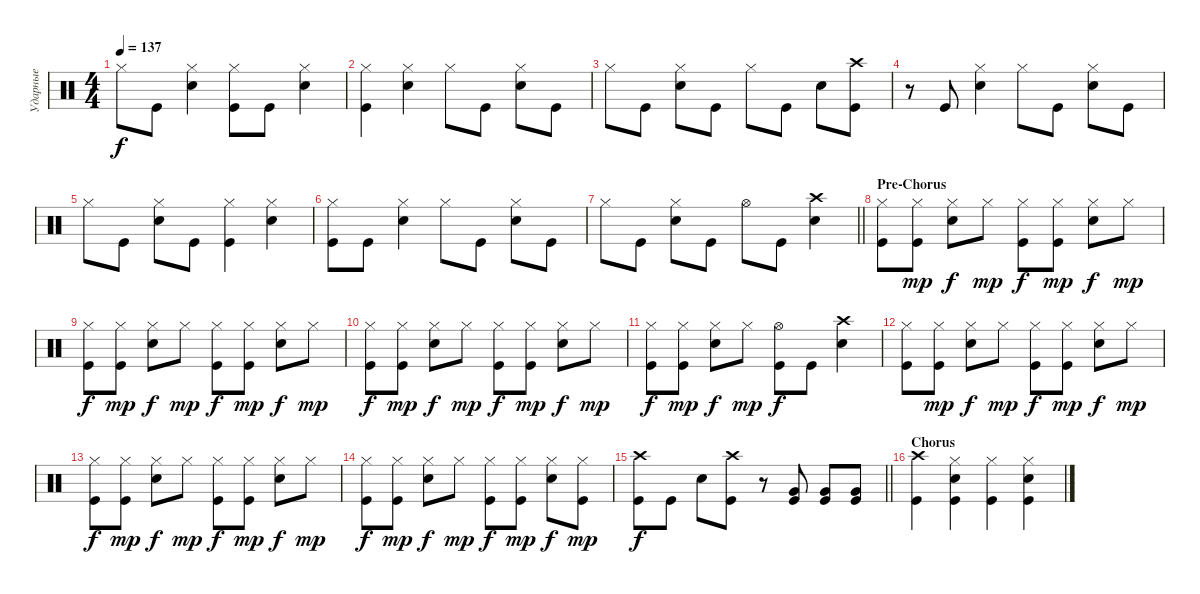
\track ("Ударные" "Ударные") {instrument percussion}
\staff {score}
\articulation defaults
\ts (4 4)
\tempo 137
\clef neutral
\ks aminor "Hi-Hat (closed)".8{dy f} "Kick (hit)".8
("Snare (hit) 2" "Hi-Hat (closed)").4 ("Kick (hit)" "Hi-Hat (closed)").8 "Kick (hit)".8 ("Snare (hit) 2" "Hi-Hat (closed)").4 |
("Kick (hit)" "Hi-Hat (closed)").4 ("Snare (hit) 2" "Hi-Hat (closed)").4 "Hi-Hat (closed)".8 "Kick (hit)".8 ("Snare (hit) 2" "Hi-Hat (closed)").8 "Kick (hit)".8 |
"Hi-Hat (closed)".8 "Kick (hit)".8 ("Snare (hit) 2" "Hi-Hat (closed)").8 "Kick (hit)".8 "Hi-Hat (closed)".8 "Kick (hit)".8 "Snare (hit) 2".8 ("Kick (hit)" "Crash high (hit)").8 |
r.8 "Kick (hit)".8 ("Snare (hit) 2" "Hi-Hat (closed)").4 "Hi-Hat (closed)".8 "Kick (hit)".8 ("Snare (hit) 2" "Hi-Hat (closed)").8 "Kick (hit)".8 |
"Hi-Hat (closed)".8 "Kick (hit)".8 ("Snare (hit) 2" "Hi-Hat (closed)").8 "Kick (hit)".8 ("Kick (hit)" "Hi-Hat (closed)").4 ("Snare (hit) 2" "Hi-Hat (closed)").4 |
("Kick (hit)" "Hi-Hat (closed)").8 "Kick (hit)".8 ("Snare (hit) 2" "Hi-Hat (closed)").4 "Hi-Hat (closed)".8 "Kick (hit)".8 ("Snare (hit) 2" "Hi-Hat (closed)").8 "Kick (hit)".8 |
\barLineRight lightlight "Hi-Hat (closed)".8 "Kick (hit)".8
("Snare (hit) 2" "Hi-Hat (closed)").8 "Kick (hit)".8 "Hi-Hat (open)".8 "Kick (hit)".8 ("Snare (hit) 2" "Crash high (hit)").4 |
\section ("" "Pre-Chorus")
("Kick (hit)" "Hi-Hat (closed)").8 ("Kick (hit)" "Hi-Hat (closed)").8{dy mp} ("Snare (hit) 2" "Hi-Hat (closed)").8{dy f} "Hi-Hat (closed)".8{dy mp} ("Hi-Hat (closed)" "Kick (hit)").8{dy f} ("Hi-Hat (closed)" "Kick (hit)").8{dy mp} ("Hi-Hat (closed)" "Snare (hit) 2").8{dy f} "Hi-Hat (closed)".8{dy mp} |
("Kick (hit)" "Hi-Hat (closed)").8{dy f} ("Kick (hit)" "Hi-Hat (closed)").8{dy mp} ("Snare (hit) 2" "Hi-Hat (closed)").8{dy f} "Hi-Hat (closed)".8{dy mp} ("Hi-Hat (closed)" "Kick (hit)").8{dy f} ("Hi-Hat (closed)" "Kick (hit)").8{dy mp} ("Hi-Hat (closed)" "Snare (hit) 2").8{dy f} "Hi-Hat (closed)".8{dy mp} |
("Kick (hit)" "Hi-Hat (closed)").8{dy f} ("Kick (hit)" "Hi-Hat (closed)").8{dy mp} ("Snare (hit) 2" "Hi-Hat (closed)").8{dy f} "Hi-Hat (closed)".8{dy mp} ("Hi-Hat (closed)" "Kick (hit)").8{dy f} ("Hi-Hat (closed)" "Kick (hit)").8{dy mp} ("Hi-Hat (closed)" "Snare (hit) 2").8{dy f} "Hi-Hat (closed)".8{dy mp} |
("Kick (hit)" "Hi-Hat (closed)").8{dy f} ("Kick (hit)" "Hi-Hat (closed)").8{dy mp} ("Snare (hit) 2" "Hi-Hat (closed)").8{dy f} "Hi-Hat (closed)".8{dy mp} ("Hi-Hat (open)" "Kick (hit)").8{dy f} "Kick (hit)".8 ("Crash high (hit)" "Snare (hit) 2").4 |
("Kick (hit)" "Hi-Hat (closed)").8 ("Kick (hit)" "Hi-Hat (closed)").8{dy mp} ("Snare (hit) 2" "Hi-Hat (closed)").8{dy f} "Hi-Hat (closed)".8{dy mp} ("Hi-Hat (closed)" "Kick (hit)").8{dy f} ("Hi-Hat (closed)" "Kick (hit)").8{dy mp} ("Hi-Hat (closed)" "Snare (hit) 2").8{dy f} "Hi-Hat (closed)".8{dy mp} |
("Kick (hit)" "Hi-Hat (closed)").8{dy f} ("Kick (hit)" "Hi-Hat (closed)").8{dy mp} ("Snare (hit) 2" "Hi-Hat (closed)").8{dy f} "Hi-Hat (closed)".8{dy mp} ("Hi-Hat (closed)" "Kick (hit)").8{dy f} ("Hi-Hat (closed)" "Kick (hit)").8{dy mp} ("Hi-Hat (closed)" "Snare (hit) 2").8{dy f} "Hi-Hat (closed)".8{dy mp} |
("Kick (hit)" "Hi-Hat (closed)").8{dy f} ("Kick (hit)" "Hi-Hat (closed)").8{dy mp} ("Snare (hit) 2" "Hi-Hat (closed)").8{dy f} "Hi-Hat (closed)".8{dy mp} ("Hi-Hat (closed)" "Kick (hit)").8{dy f} ("Hi-Hat (closed)" "Kick (hit)").8{dy mp} ("Hi-Hat (closed)" "Snare (hit) 2").8{dy f} ("Hi-Hat (closed)" "Kick (hit)").8{dy mp} |
\barLineRight lightlight
("Kick (hit)" "Crash high (hit)").8{dy f} "Kick (hit)".8 "Snare (hit) 2".8 ("Kick (hit)" "Crash high (hit)").8 r.8 ("Kick (hit)" "Very Low Tom (hit)").8 ("Kick (hit)" "Very Low Tom (hit)").8 ("Kick (hit)" "Very Low Tom (hit)").8 |
\section ("" "Chorus")
("Kick (hit)" "Crash high (hit)").4 ("Snare (hit) 2" "Hi-Hat (closed)" "Kick (hit)").4 ("Kick (hit)" "Hi-Hat (closed)").4 ("Snare (hit) 2" "Hi-Hat (closed)" "Kick (hit)").4
